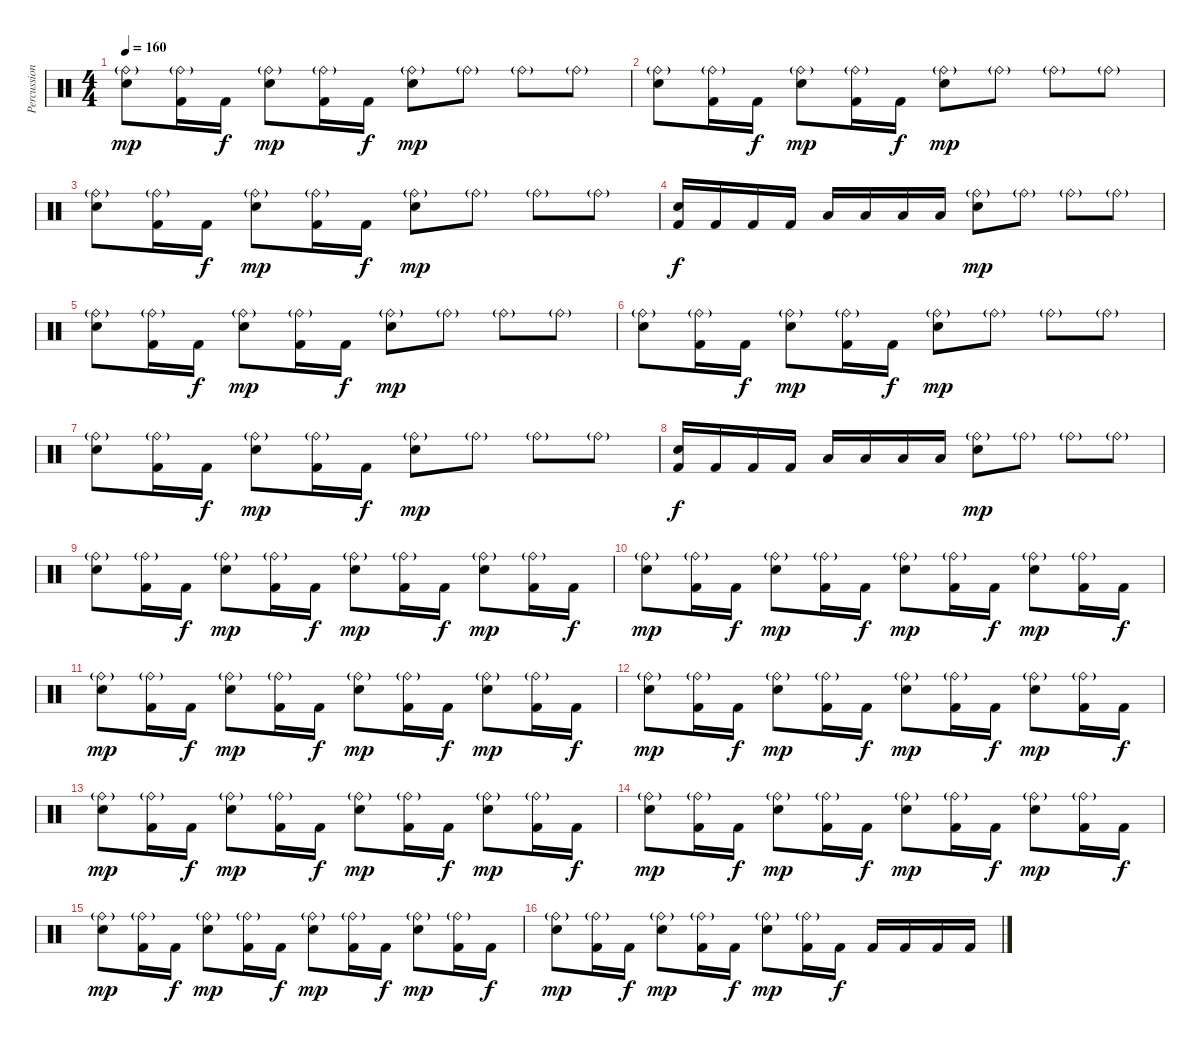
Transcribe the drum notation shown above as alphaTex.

\track ("Percussion" "Percussion") {instrument percussion}
\staff {score}
\articulation defaults
\ts (4 4)
\tempo 160
\clef neutral
\ks c
("Electric Snare (hit)" "Ride (bell)"{g}).8{dy mp} ("Kick (hit) 2" "Ride (bell)"{g}).16 "Kick (hit) 2".16{dy f} ("Electric Snare (hit)" "Ride (bell)"{g}).8{dy mp} ("Kick (hit) 2" "Ride (bell)"{g}).16 "Kick (hit) 2".16{dy f} ("Electric Snare (hit)" "Ride (bell)"{g}).8{dy mp} "Ride (bell)"{g}.8 "Ride (bell)"{g}.8 "Ride (bell)"{g}.8 |
("Electric Snare (hit)" "Ride (bell)"{g}).8 ("Kick (hit) 2" "Ride (bell)"{g}).16 "Kick (hit) 2".16{dy f} ("Electric Snare (hit)" "Ride (bell)"{g}).8{dy mp} ("Kick (hit) 2" "Ride (bell)"{g}).16 "Kick (hit) 2".16{dy f} ("Electric Snare (hit)" "Ride (bell)"{g}).8{dy mp} "Ride (bell)"{g}.8 "Ride (bell)"{g}.8 "Ride (bell)"{g}.8 |
("Electric Snare (hit)" "Ride (bell)"{g}).8 ("Kick (hit) 2" "Ride (bell)"{g}).16 "Kick (hit) 2".16{dy f} ("Electric Snare (hit)" "Ride (bell)"{g}).8{dy mp} ("Kick (hit) 2" "Ride (bell)"{g}).16 "Kick (hit) 2".16{dy f} ("Electric Snare (hit)" "Ride (bell)"{g}).8{dy mp} "Ride (bell)"{g}.8 "Ride (bell)"{g}.8 "Ride (bell)"{g}.8 |
("Kick (hit) 2" "Electric Snare (hit)").16{dy f} "Kick (hit) 2".16 "Kick (hit) 2".16 "Kick (hit) 2".16 "Low Floor Tom (hit)".16 "Low Floor Tom (hit)".16 "Low Floor Tom (hit)".16 "Low Floor Tom (hit)".16 ("Electric Snare (hit)" "Ride (bell)"{g}).8{dy mp} "Ride (bell)"{g}.8 "Ride (bell)"{g}.8 "Ride (bell)"{g}.8 |
("Electric Snare (hit)" "Ride (bell)"{g}).8 ("Kick (hit) 2" "Ride (bell)"{g}).16 "Kick (hit) 2".16{dy f} ("Electric Snare (hit)" "Ride (bell)"{g}).8{dy mp} ("Kick (hit) 2" "Ride (bell)"{g}).16 "Kick (hit) 2".16{dy f} ("Electric Snare (hit)" "Ride (bell)"{g}).8{dy mp} "Ride (bell)"{g}.8 "Ride (bell)"{g}.8 "Ride (bell)"{g}.8 |
("Electric Snare (hit)" "Ride (bell)"{g}).8 ("Kick (hit) 2" "Ride (bell)"{g}).16 "Kick (hit) 2".16{dy f} ("Electric Snare (hit)" "Ride (bell)"{g}).8{dy mp} ("Kick (hit) 2" "Ride (bell)"{g}).16 "Kick (hit) 2".16{dy f} ("Electric Snare (hit)" "Ride (bell)"{g}).8{dy mp} "Ride (bell)"{g}.8 "Ride (bell)"{g}.8 "Ride (bell)"{g}.8 |
("Electric Snare (hit)" "Ride (bell)"{g}).8 ("Kick (hit) 2" "Ride (bell)"{g}).16 "Kick (hit) 2".16{dy f} ("Electric Snare (hit)" "Ride (bell)"{g}).8{dy mp} ("Kick (hit) 2" "Ride (bell)"{g}).16 "Kick (hit) 2".16{dy f} ("Electric Snare (hit)" "Ride (bell)"{g}).8{dy mp} "Ride (bell)"{g}.8 "Ride (bell)"{g}.8 "Ride (bell)"{g}.8 |
("Kick (hit) 2" "Electric Snare (hit)").16{dy f} "Kick (hit) 2".16 "Kick (hit) 2".16 "Kick (hit) 2".16 "Low Floor Tom (hit)".16 "Low Floor Tom (hit)".16 "Low Floor Tom (hit)".16 "Low Floor Tom (hit)".16 ("Electric Snare (hit)" "Ride (bell)"{g}).8{dy mp} "Ride (bell)"{g}.8 "Ride (bell)"{g}.8 "Ride (bell)"{g}.8 |
("Electric Snare (hit)" "Ride (bell)"{g}).8 ("Kick (hit) 2" "Ride (bell)"{g}).16 "Kick (hit) 2".16{dy f} ("Electric Snare (hit)" "Ride (bell)"{g}).8{dy mp} ("Kick (hit) 2" "Ride (bell)"{g}).16 "Kick (hit) 2".16{dy f} ("Electric Snare (hit)" "Ride (bell)"{g}).8{dy mp} ("Kick (hit) 2" "Ride (bell)"{g}).16 "Kick (hit) 2".16{dy f} ("Electric Snare (hit)" "Ride (bell)"{g}).8{dy mp} ("Kick (hit) 2" "Ride (bell)"{g}).16 "Kick (hit) 2".16{dy f} |
("Electric Snare (hit)" "Ride (bell)"{g}).8{dy mp} ("Kick (hit) 2" "Ride (bell)"{g}).16 "Kick (hit) 2".16{dy f} ("Electric Snare (hit)" "Ride (bell)"{g}).8{dy mp} ("Kick (hit) 2" "Ride (bell)"{g}).16 "Kick (hit) 2".16{dy f} ("Electric Snare (hit)" "Ride (bell)"{g}).8{dy mp} ("Kick (hit) 2" "Ride (bell)"{g}).16 "Kick (hit) 2".16{dy f} ("Electric Snare (hit)" "Ride (bell)"{g}).8{dy mp} ("Kick (hit) 2" "Ride (bell)"{g}).16 "Kick (hit) 2".16{dy f} |
("Electric Snare (hit)" "Ride (bell)"{g}).8{dy mp} ("Kick (hit) 2" "Ride (bell)"{g}).16 "Kick (hit) 2".16{dy f} ("Electric Snare (hit)" "Ride (bell)"{g}).8{dy mp} ("Kick (hit) 2" "Ride (bell)"{g}).16 "Kick (hit) 2".16{dy f} ("Electric Snare (hit)" "Ride (bell)"{g}).8{dy mp} ("Kick (hit) 2" "Ride (bell)"{g}).16 "Kick (hit) 2".16{dy f} ("Electric Snare (hit)" "Ride (bell)"{g}).8{dy mp} ("Kick (hit) 2" "Ride (bell)"{g}).16 "Kick (hit) 2".16{dy f} |
("Electric Snare (hit)" "Ride (bell)"{g}).8{dy mp} ("Kick (hit) 2" "Ride (bell)"{g}).16 "Kick (hit) 2".16{dy f} ("Electric Snare (hit)" "Ride (bell)"{g}).8{dy mp} ("Kick (hit) 2" "Ride (bell)"{g}).16 "Kick (hit) 2".16{dy f} ("Electric Snare (hit)" "Ride (bell)"{g}).8{dy mp} ("Kick (hit) 2" "Ride (bell)"{g}).16 "Kick (hit) 2".16{dy f} ("Electric Snare (hit)" "Ride (bell)"{g}).8{dy mp} ("Kick (hit) 2" "Ride (bell)"{g}).16 "Kick (hit) 2".16{dy f} |
("Electric Snare (hit)" "Ride (bell)"{g}).8{dy mp} ("Kick (hit) 2" "Ride (bell)"{g}).16 "Kick (hit) 2".16{dy f} ("Electric Snare (hit)" "Ride (bell)"{g}).8{dy mp} ("Kick (hit) 2" "Ride (bell)"{g}).16 "Kick (hit) 2".16{dy f} ("Electric Snare (hit)" "Ride (bell)"{g}).8{dy mp} ("Kick (hit) 2" "Ride (bell)"{g}).16 "Kick (hit) 2".16{dy f} ("Electric Snare (hit)" "Ride (bell)"{g}).8{dy mp} ("Kick (hit) 2" "Ride (bell)"{g}).16 "Kick (hit) 2".16{dy f} |
("Electric Snare (hit)" "Ride (bell)"{g}).8{dy mp} ("Kick (hit) 2" "Ride (bell)"{g}).16 "Kick (hit) 2".16{dy f} ("Electric Snare (hit)" "Ride (bell)"{g}).8{dy mp} ("Kick (hit) 2" "Ride (bell)"{g}).16 "Kick (hit) 2".16{dy f} ("Electric Snare (hit)" "Ride (bell)"{g}).8{dy mp} ("Kick (hit) 2" "Ride (bell)"{g}).16 "Kick (hit) 2".16{dy f} ("Electric Snare (hit)" "Ride (bell)"{g}).8{dy mp} ("Kick (hit) 2" "Ride (bell)"{g}).16 "Kick (hit) 2".16{dy f} |
("Electric Snare (hit)" "Ride (bell)"{g}).8{dy mp} ("Kick (hit) 2" "Ride (bell)"{g}).16 "Kick (hit) 2".16{dy f} ("Electric Snare (hit)" "Ride (bell)"{g}).8{dy mp} ("Kick (hit) 2" "Ride (bell)"{g}).16 "Kick (hit) 2".16{dy f} ("Electric Snare (hit)" "Ride (bell)"{g}).8{dy mp} ("Kick (hit) 2" "Ride (bell)"{g}).16 "Kick (hit) 2".16{dy f} ("Electric Snare (hit)" "Ride (bell)"{g}).8{dy mp} ("Kick (hit) 2" "Ride (bell)"{g}).16 "Kick (hit) 2".16{dy f} |
("Electric Snare (hit)" "Ride (bell)"{g}).8{dy mp} ("Kick (hit) 2" "Ride (bell)"{g}).16 "Kick (hit) 2".16{dy f} ("Electric Snare (hit)" "Ride (bell)"{g}).8{dy mp} ("Kick (hit) 2" "Ride (bell)"{g}).16 "Kick (hit) 2".16{dy f} ("Electric Snare (hit)" "Ride (bell)"{g}).8{dy mp} ("Kick (hit) 2" "Ride (bell)"{g}).16 "Kick (hit) 2".16{dy f} "Kick (hit) 2".16 "Kick (hit) 2".16 "Kick (hit) 2".16 "Kick (hit) 2".16
